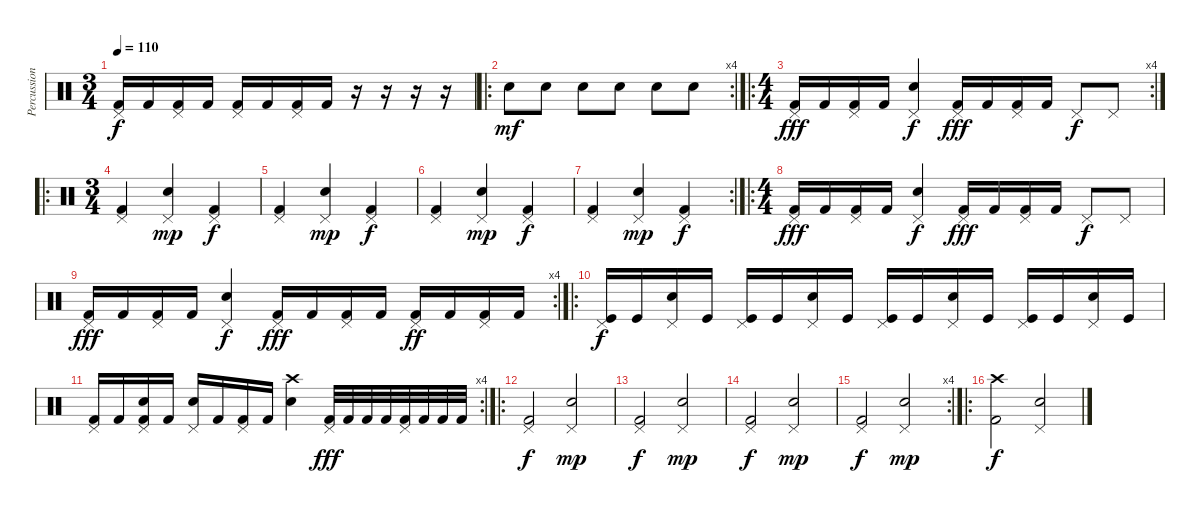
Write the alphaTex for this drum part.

\track ("Percussions" "Percussion") {instrument percussion}
\staff {score}
\articulation defaults
\ts (3 4)
\tempo 110
\clef neutral
\ks c
("Pedal Hi-Hat (hit)" "Kick (hit) 2").16{dy f} "Kick (hit) 2".16 ("Pedal Hi-Hat (hit)" "Kick (hit) 2").16 "Kick (hit) 2".16 ("Pedal Hi-Hat (hit)" "Kick (hit) 2").16 "Kick (hit) 2".16 ("Pedal Hi-Hat (hit)" "Kick (hit) 2").16 "Kick (hit) 2".16 r.16 r.16 r.16 r.16 |
\ro
\rc 4 "Snare (hit) 2".8{dy mf} "Snare (hit) 2".8 "Snare (hit) 2".8 "Snare (hit) 2".8 "Snare (hit) 2".8 "Snare (hit) 2".8
|
\ro
\rc 4
\ts (4 4)
("Pedal Hi-Hat (hit)" "Kick (hit) 2").16{dy fff} "Kick (hit) 2".16 ("Pedal Hi-Hat (hit)" "Kick (hit) 2").16 "Kick (hit) 2".16 ("Pedal Hi-Hat (hit)" "Snare (hit) 2").4{dy f} ("Pedal Hi-Hat (hit)" "Kick (hit) 2").16{dy fff} "Kick (hit) 2".16 ("Pedal Hi-Hat (hit)" "Kick (hit) 2").16 "Kick (hit) 2".16 "Pedal Hi-Hat (hit)".8{dy f} "Pedal Hi-Hat (hit)".8 |
\ro
\ts (3 4)
("Pedal Hi-Hat (hit)" "Kick (hit) 2").4 ("Pedal Hi-Hat (hit)" "Snare (hit) 2").4{dy mp} ("Pedal Hi-Hat (hit)" "Kick (hit) 2").4{dy f} |
("Pedal Hi-Hat (hit)" "Kick (hit) 2").4 ("Pedal Hi-Hat (hit)" "Snare (hit) 2").4{dy mp} ("Pedal Hi-Hat (hit)" "Kick (hit) 2").4{dy f} |
("Pedal Hi-Hat (hit)" "Kick (hit) 2").4 ("Pedal Hi-Hat (hit)" "Snare (hit) 2").4{dy mp} ("Pedal Hi-Hat (hit)" "Kick (hit) 2").4{dy f} |
\rc 2
("Pedal Hi-Hat (hit)" "Kick (hit) 2").4 ("Pedal Hi-Hat (hit)" "Snare (hit) 2").4{dy mp} ("Pedal Hi-Hat (hit)" "Kick (hit) 2").4{dy f} |
\ro
\ts (4 4)
("Pedal Hi-Hat (hit)" "Kick (hit) 2").16{dy fff} "Kick (hit) 2".16 ("Pedal Hi-Hat (hit)" "Kick (hit) 2").16 "Kick (hit) 2".16 ("Pedal Hi-Hat (hit)" "Snare (hit) 2").4{dy f} ("Pedal Hi-Hat (hit)" "Kick (hit) 2").16{dy fff} "Kick (hit) 2".16 ("Pedal Hi-Hat (hit)" "Kick (hit) 2").16 "Kick (hit) 2".16 "Pedal Hi-Hat (hit)".8{dy f} "Pedal Hi-Hat (hit)".8 |
\rc 4
("Pedal Hi-Hat (hit)" "Kick (hit) 2").16{dy fff} "Kick (hit) 2".16 ("Pedal Hi-Hat (hit)" "Kick (hit) 2").16 "Kick (hit) 2".16 ("Pedal Hi-Hat (hit)" "Snare (hit) 2").4{dy f} ("Pedal Hi-Hat (hit)" "Kick (hit) 2").16{dy fff} "Kick (hit) 2".16 ("Pedal Hi-Hat (hit)" "Kick (hit) 2").16 "Kick (hit) 2".16 ("Pedal Hi-Hat (hit)" "Kick (hit) 2").16{dy ff} "Kick (hit) 2".16 ("Pedal Hi-Hat (hit)" "Kick (hit) 2").16 "Kick (hit) 2".16 |
\ro
("Pedal Hi-Hat (hit)" "Kick (hit)").16{dy f} "Kick (hit)".16 ("Pedal Hi-Hat (hit)" "Snare (hit) 2").16 "Kick (hit)".16 ("Pedal Hi-Hat (hit)" "Kick (hit)").16 "Kick (hit)".16 ("Pedal Hi-Hat (hit)" "Snare (hit) 2").16 "Kick (hit)".16 ("Pedal Hi-Hat (hit)" "Kick (hit)").16 "Kick (hit)".16 ("Pedal Hi-Hat (hit)" "Snare (hit) 2").16 "Kick (hit)".16 ("Pedal Hi-Hat (hit)" "Kick (hit)").16 "Kick (hit)".16 ("Pedal Hi-Hat (hit)" "Snare (hit) 2").16 "Kick (hit)".16 |
\rc 4
("Pedal Hi-Hat (hit)" "Kick (hit) 2").16 "Kick (hit) 2".16 ("Pedal Hi-Hat (hit)" "Snare (hit) 2" "Kick (hit) 2").16 "Kick (hit) 2".16 ("Pedal Hi-Hat (hit)" "Snare (hit) 2").16 "Kick (hit) 2".16 ("Pedal Hi-Hat (hit)" "Kick (hit) 2").16 "Kick (hit) 2".16 ("Crash high (hit)" "Snare (hit) 2").4 ("Pedal Hi-Hat (hit)" "Kick (hit) 2").32{dy fff} "Kick (hit) 2".32 "Kick (hit) 2".32 "Kick (hit) 2".32 ("Pedal Hi-Hat (hit)" "Kick (hit) 2").32 "Kick (hit) 2".32 "Kick (hit) 2".32 "Kick (hit) 2".32 |
\ro
("Pedal Hi-Hat (hit)" "Kick (hit) 2").2{dy f} ("Pedal Hi-Hat (hit)" "Snare (hit) 2").2{dy mp} |
("Pedal Hi-Hat (hit)" "Kick (hit) 2").2{dy f} ("Pedal Hi-Hat (hit)" "Snare (hit) 2").2{dy mp} |
("Pedal Hi-Hat (hit)" "Kick (hit) 2").2{dy f} ("Pedal Hi-Hat (hit)" "Snare (hit) 2").2{dy mp} |
\rc 4
("Pedal Hi-Hat (hit)" "Kick (hit) 2").2{dy f} ("Pedal Hi-Hat (hit)" "Snare (hit) 2").2{dy mp} |
\ro
("Crash high (hit)" "Kick (hit) 2").2{dy f} ("Pedal Hi-Hat (hit)" "Snare (hit) 2").2
